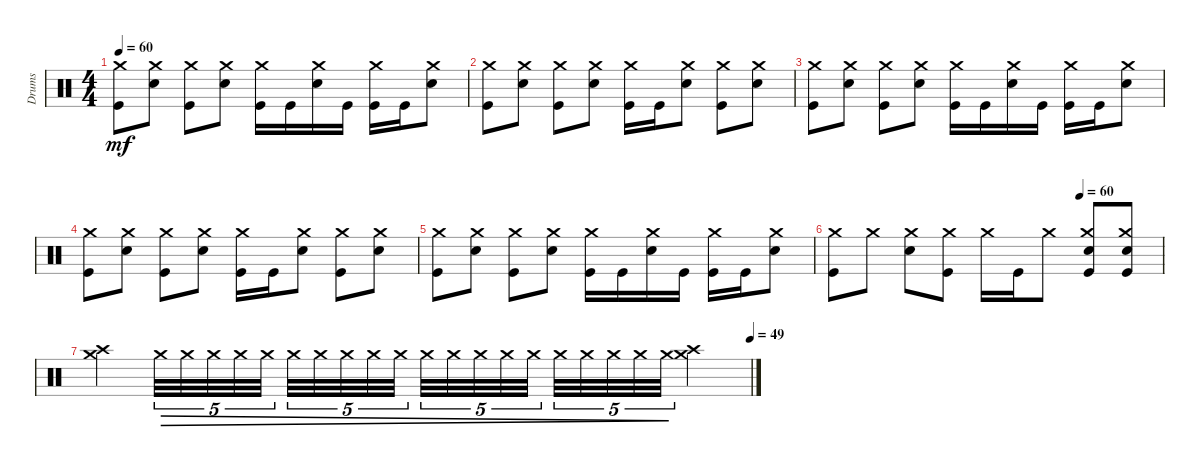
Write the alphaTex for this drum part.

\defaultSystemsLayout 4
\track ("Drums" "Drums") {instrument percussion}
\staff {score}
\articulation defaults
\ts (4 4)
\tempo 60
\clef neutral
\ks c
("Kick (hit)" "Crash medium (hit)").8{dy mf} ("Snare (hit) 2" "Crash medium (hit)").8 ("Crash medium (hit)" "Kick (hit)").8 ("Crash medium (hit)" "Snare (hit) 2").8 ("Kick (hit)" "Crash medium (hit)").16 "Kick (hit)".16 ("Snare (hit) 2" "Crash medium (hit)").16 "Kick (hit)".16 ("Crash medium (hit)" "Kick (hit)").16 "Kick (hit)".16 ("Snare (hit) 2" "Crash medium (hit)").8 |
("Kick (hit)" "Crash medium (hit)").8 ("Snare (hit) 2" "Crash medium (hit)").8 ("Crash medium (hit)" "Kick (hit)").8 ("Crash medium (hit)" "Snare (hit) 2").8 ("Crash medium (hit)" "Kick (hit)").16 "Kick (hit)".16 ("Snare (hit) 2" "Crash medium (hit)").8 ("Kick (hit)" "Crash medium (hit)").8 ("Snare (hit) 2" "Crash medium (hit)").8 |
("Kick (hit)" "Crash medium (hit)").8 ("Snare (hit) 2" "Crash medium (hit)").8 ("Crash medium (hit)" "Kick (hit)").8 ("Crash medium (hit)" "Snare (hit) 2").8 ("Kick (hit)" "Crash medium (hit)").16 "Kick (hit)".16 ("Snare (hit) 2" "Crash medium (hit)").16 "Kick (hit)".16 ("Crash medium (hit)" "Kick (hit)").16 "Kick (hit)".16 ("Snare (hit) 2" "Crash medium (hit)").8 |
("Kick (hit)" "Crash medium (hit)").8 ("Snare (hit) 2" "Crash medium (hit)").8 ("Crash medium (hit)" "Kick (hit)").8 ("Crash medium (hit)" "Snare (hit) 2").8 ("Crash medium (hit)" "Kick (hit)").16 "Kick (hit)".16 ("Snare (hit) 2" "Crash medium (hit)").8 ("Kick (hit)" "Crash medium (hit)").8 ("Snare (hit) 2" "Crash medium (hit)").8 |
("Kick (hit)" "Crash medium (hit)").8 ("Snare (hit) 2" "Crash medium (hit)").8 ("Crash medium (hit)" "Kick (hit)").8 ("Crash medium (hit)" "Snare (hit) 2").8 ("Kick (hit)" "Crash medium (hit)").16 "Kick (hit)".16 ("Snare (hit) 2" "Crash medium (hit)").16 "Kick (hit)".16 ("Crash medium (hit)" "Kick (hit)").16 "Kick (hit)".16 ("Snare (hit) 2" "Crash medium (hit)").8 |
\tempo (60 0.75)
("Kick (hit)" "Crash medium (hit)").8 "Crash medium (hit)".8 ("Crash medium (hit)" "Snare (hit) 2").8 ("Crash medium (hit)" "Kick (hit)").8 "Crash medium (hit)".16 "Kick (hit)".16 "Crash medium (hit)".8 ("Crash medium (hit)" "Snare (hit) 2" "Kick (hit)").8 ("Crash medium (hit)" "Snare (hit) 2" "Kick (hit)").8 |
\tempo (49 1)
("Crash medium (hit)" "Crash high (hit)").4 "Crash medium (hit)".32{tu (5 4) dec} "Crash medium (hit)".32{tu (5 4) dec} "Crash medium (hit)".32{tu (5 4) dec} "Crash medium (hit)".32{tu (5 4) dec} "Crash medium (hit)".32{tu (5 4) dec} "Crash medium (hit)".32{tu (5 4) dec} "Crash medium (hit)".32{tu (5 4) dec} "Crash medium (hit)".32{tu (5 4) dec} "Crash medium (hit)".32{tu (5 4) dec} "Crash medium (hit)".32{tu (5 4) dec} "Crash medium (hit)".32{tu (5 4) dec} "Crash medium (hit)".32{tu (5 4) dec} "Crash medium (hit)".32{tu (5 4) dec} "Crash medium (hit)".32{tu (5 4) dec} "Crash medium (hit)".32{tu (5 4) dec} "Crash medium (hit)".32{tu (5 4) dec} "Crash medium (hit)".32{tu (5 4) dec} "Crash medium (hit)".32{tu (5 4) dec} "Crash medium (hit)".32{tu (5 4) dec} "Crash medium (hit)".32{tu (5 4) dec} ("Crash medium (hit)" "Crash high (hit)").4
